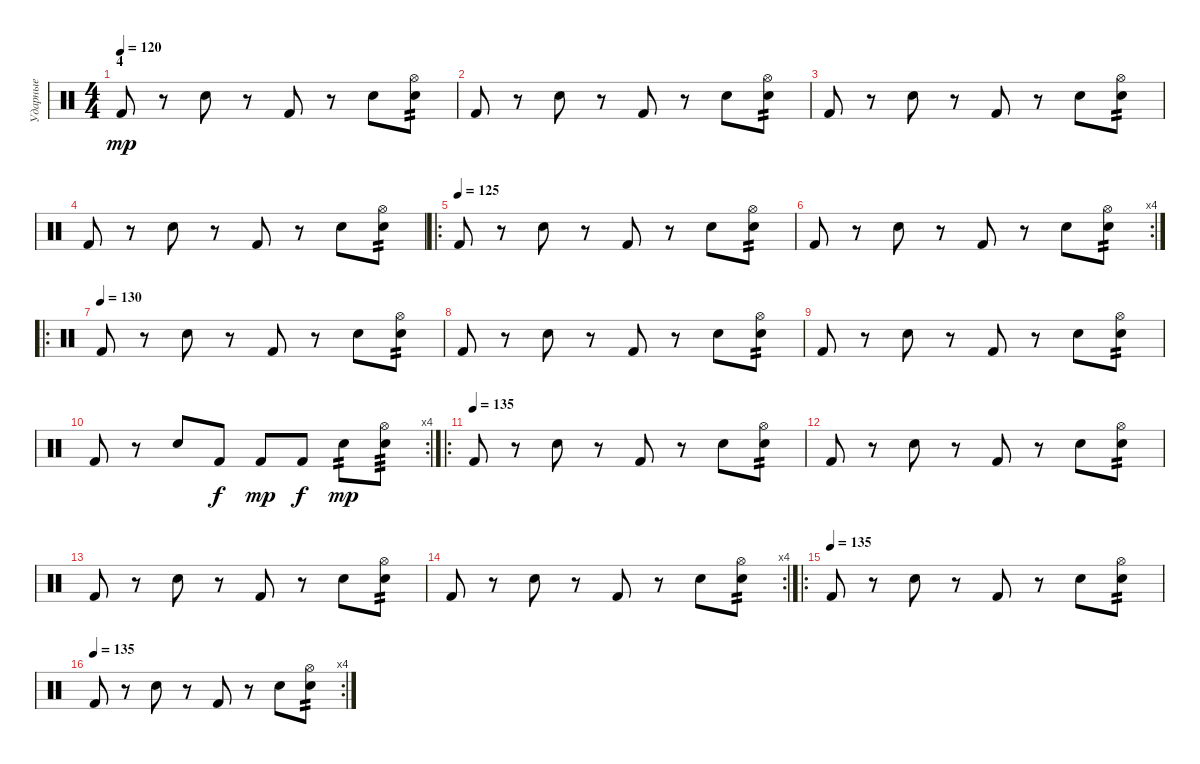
\track ("Ударные" "Ударные") {instrument percussion}
\staff {score}
\articulation defaults
\ts (4 4)
\section ("" "4")
\tempo 120
\clef neutral
\ks c "Kick (hit) 2".8{dy mp}
r.8 "Snare (hit) 2".8 r.8 "Kick (hit) 2".8 r.8 "Snare (hit) 2".8 ("Snare (hit) 2" "Hi-Hat (open)").8{tp 2} |
"Kick (hit) 2".8 r.8 "Snare (hit) 2".8 r.8 "Kick (hit) 2".8 r.8 "Snare (hit) 2".8 ("Snare (hit) 2" "Hi-Hat (open)").8{tp 2} |
"Kick (hit) 2".8 r.8 "Snare (hit) 2".8 r.8 "Kick (hit) 2".8 r.8 "Snare (hit) 2".8 ("Snare (hit) 2" "Hi-Hat (open)").8{tp 2} |
"Kick (hit) 2".8 r.8 "Snare (hit) 2".8 r.8 "Kick (hit) 2".8 r.8 "Snare (hit) 2".8 ("Snare (hit) 2" "Hi-Hat (open)").8{tp 2} |
\ro
\tempo (125)
"Kick (hit) 2".8 r.8 "Snare (hit) 2".8 r.8 "Kick (hit) 2".8 r.8 "Snare (hit) 2".8 ("Snare (hit) 2" "Hi-Hat (open)").8{tp 2} |
\rc 4 "Kick (hit) 2".8
r.8 "Snare (hit) 2".8 r.8 "Kick (hit) 2".8 r.8 "Snare (hit) 2".8 ("Snare (hit) 2" "Hi-Hat (open)").8{tp 2} |
\ro
\tempo (130)
"Kick (hit) 2".8 r.8 "Snare (hit) 2".8 r.8 "Kick (hit) 2".8 r.8 "Snare (hit) 2".8 ("Snare (hit) 2" "Hi-Hat (open)").8{tp 2} |
"Kick (hit) 2".8 r.8 "Snare (hit) 2".8 r.8 "Kick (hit) 2".8 r.8 "Snare (hit) 2".8 ("Snare (hit) 2" "Hi-Hat (open)").8{tp 2} |
"Kick (hit) 2".8 r.8 "Snare (hit) 2".8 r.8 "Kick (hit) 2".8 r.8 "Snare (hit) 2".8 ("Snare (hit) 2" "Hi-Hat (open)").8{tp 2} |
\rc 4 "Kick (hit) 2".8
r.8 "Snare (hit) 2".8 "Kick (hit) 2".8{dy f} "Kick (hit) 2".8{dy mp} "Kick (hit) 2".8{dy f} "Snare (hit) 2".8{tp 2 dy mp} ("Snare (hit) 2" "Hi-Hat (open)").8{tp 3} |
\ro
\tempo (135)
"Kick (hit) 2".8 r.8 "Snare (hit) 2".8 r.8 "Kick (hit) 2".8 r.8 "Snare (hit) 2".8 ("Snare (hit) 2" "Hi-Hat (open)").8{tp 2} |
"Kick (hit) 2".8 r.8 "Snare (hit) 2".8 r.8 "Kick (hit) 2".8 r.8 "Snare (hit) 2".8 ("Snare (hit) 2" "Hi-Hat (open)").8{tp 2} |
"Kick (hit) 2".8 r.8 "Snare (hit) 2".8 r.8 "Kick (hit) 2".8 r.8 "Snare (hit) 2".8 ("Snare (hit) 2" "Hi-Hat (open)").8{tp 2} |
\rc 4 "Kick (hit) 2".8
r.8 "Snare (hit) 2".8 r.8 "Kick (hit) 2".8 r.8 "Snare (hit) 2".8 ("Snare (hit) 2" "Hi-Hat (open)").8{tp 2} |
\ro
\tempo 125
\tempo (135)
"Kick (hit) 2".8 r.8 "Snare (hit) 2".8 r.8 "Kick (hit) 2".8 r.8 "Snare (hit) 2".8 ("Snare (hit) 2" "Hi-Hat (open)").8{tp 2} |
\rc 4
\tempo (135)
"Kick (hit) 2".8 r.8 "Snare (hit) 2".8 r.8 "Kick (hit) 2".8 r.8 "Snare (hit) 2".8 ("Snare (hit) 2" "Hi-Hat (open)").8{tp 2}
